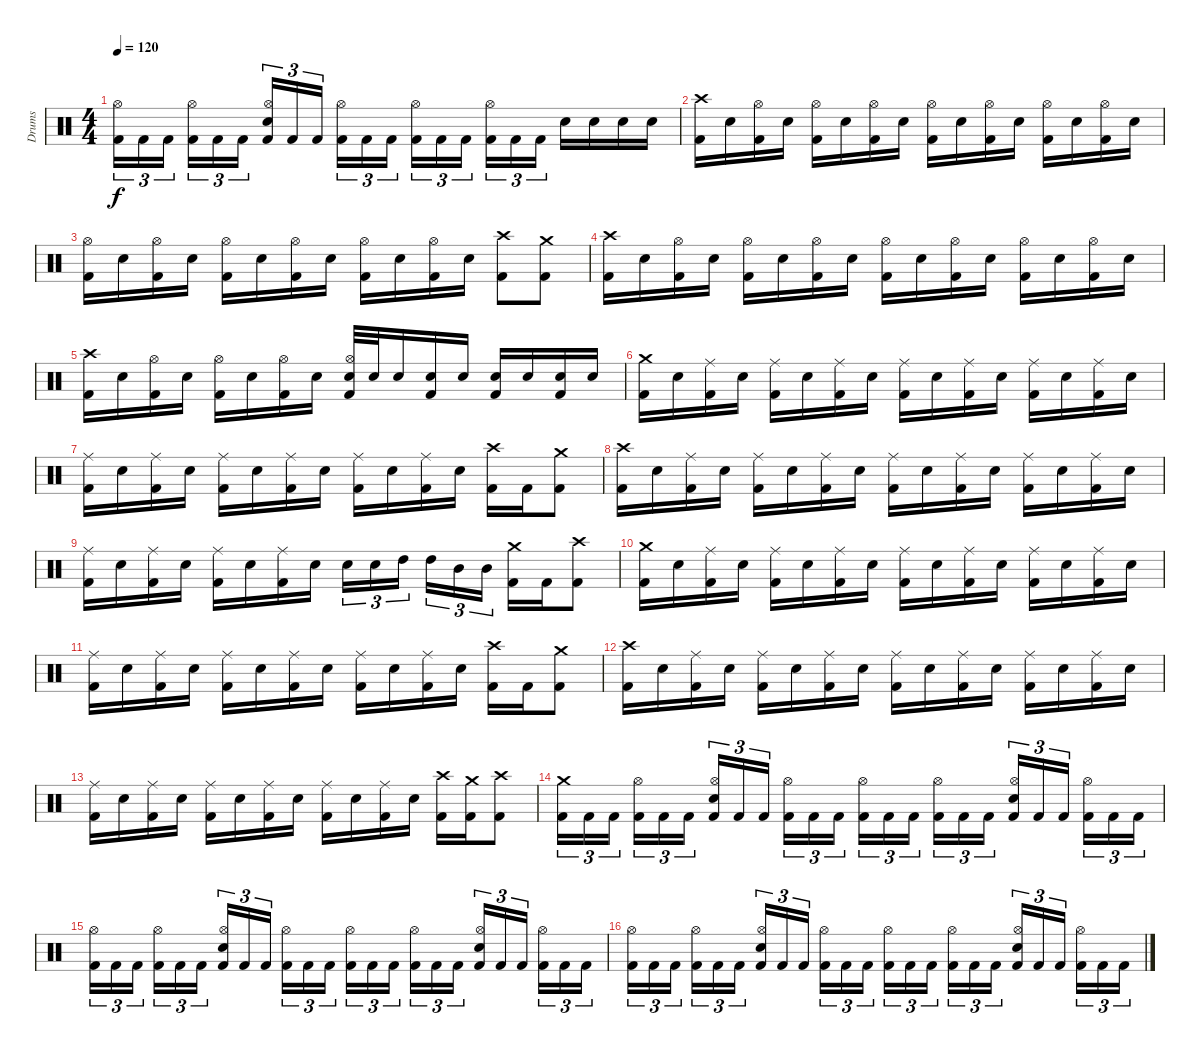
\track ("Drums" "Drums") {instrument percussion}
\staff {score}
\articulation defaults
\ts (4 4)
\tempo 120
\clef neutral
\ks c
("Kick (hit) 2" "Hi-Hat (open)").16{tu (3 2) dy f} "Kick (hit) 2".16{tu (3 2)} "Kick (hit) 2".16{tu (3 2)} ("Kick (hit) 2" "Hi-Hat (open)").16{tu (3 2)} "Kick (hit) 2".16{tu (3 2)} "Kick (hit) 2".16{tu (3 2)} ("Kick (hit) 2" "Electric Snare (hit)" "Hi-Hat (open)").16{tu (3 2)} "Kick (hit) 2".16{tu (3 2)} "Kick (hit) 2".16{tu (3 2)} ("Kick (hit) 2" "Hi-Hat (open)").16{tu (3 2)} "Kick (hit) 2".16{tu (3 2)} "Kick (hit) 2".16{tu (3 2)} ("Kick (hit) 2" "Hi-Hat (open)").16{tu (3 2)} "Kick (hit) 2".16{tu (3 2)} "Kick (hit) 2".16{tu (3 2)} ("Kick (hit) 2" "Hi-Hat (open)").16{tu (3 2)} "Kick (hit) 2".16{tu (3 2)} "Kick (hit) 2".16{tu (3 2)} "Electric Snare (hit)".16 "Electric Snare (hit)".16 "Electric Snare (hit)".16 "Electric Snare (hit)".16 |
("Kick (hit) 2" "Crash high (hit)").16 "Electric Snare (hit)".16 ("Kick (hit) 2" "Hi-Hat (open)").16 "Electric Snare (hit)".16 ("Kick (hit) 2" "Hi-Hat (open)").16 "Electric Snare (hit)".16 ("Kick (hit) 2" "Hi-Hat (open)").16 "Electric Snare (hit)".16 ("Kick (hit) 2" "Hi-Hat (open)").16 "Electric Snare (hit)".16 ("Kick (hit) 2" "Hi-Hat (open)").16 "Electric Snare (hit)".16 ("Kick (hit) 2" "Hi-Hat (open)").16 "Electric Snare (hit)".16 ("Kick (hit) 2" "Hi-Hat (open)").16 "Electric Snare (hit)".16 |
("Kick (hit) 2" "Hi-Hat (open)").16 "Electric Snare (hit)".16 ("Kick (hit) 2" "Hi-Hat (open)").16 "Electric Snare (hit)".16 ("Kick (hit) 2" "Hi-Hat (open)").16 "Electric Snare (hit)".16 ("Kick (hit) 2" "Hi-Hat (open)").16 "Electric Snare (hit)".16 ("Kick (hit) 2" "Hi-Hat (open)").16 "Electric Snare (hit)".16 ("Kick (hit) 2" "Hi-Hat (open)").16 "Electric Snare (hit)".16 ("Kick (hit) 2" "Crash high (hit)").8 ("Kick (hit) 2" "Crash medium (hit)").8 |
("Kick (hit) 2" "Crash high (hit)").16 "Electric Snare (hit)".16 ("Kick (hit) 2" "Hi-Hat (open)").16 "Electric Snare (hit)".16 ("Kick (hit) 2" "Hi-Hat (open)").16 "Electric Snare (hit)".16 ("Kick (hit) 2" "Hi-Hat (open)").16 "Electric Snare (hit)".16 ("Kick (hit) 2" "Hi-Hat (open)").16 "Electric Snare (hit)".16 ("Kick (hit) 2" "Hi-Hat (open)").16 "Electric Snare (hit)".16 ("Kick (hit) 2" "Hi-Hat (open)").16 "Electric Snare (hit)".16 ("Kick (hit) 2" "Hi-Hat (open)").16 "Electric Snare (hit)".16 |
("Kick (hit) 2" "Crash high (hit)").16 "Electric Snare (hit)".16 ("Kick (hit) 2" "Hi-Hat (open)").16 "Electric Snare (hit)".16 ("Kick (hit) 2" "Hi-Hat (open)").16 "Electric Snare (hit)".16 ("Kick (hit) 2" "Hi-Hat (open)").16 "Electric Snare (hit)".16 ("Kick (hit) 2" "Electric Snare (hit)" "Hi-Hat (open)").32 "Electric Snare (hit)".32 "Electric Snare (hit)".16 ("Kick (hit) 2" "Electric Snare (hit)").16 "Electric Snare (hit)".16 ("Kick (hit) 2" "Electric Snare (hit)").16 "Electric Snare (hit)".16 ("Kick (hit) 2" "Electric Snare (hit)").16 "Electric Snare (hit)".16 |
("Kick (hit) 2" "Crash medium (hit)").16 "Electric Snare (hit)".16 ("Kick (hit) 2" "Ride (middle)").16 "Electric Snare (hit)".16 ("Kick (hit) 2" "Ride (middle)").16 "Electric Snare (hit)".16 ("Kick (hit) 2" "Ride (middle)").16 "Electric Snare (hit)".16 ("Kick (hit) 2" "Ride (middle)").16 "Electric Snare (hit)".16 ("Kick (hit) 2" "Ride (middle)").16 "Electric Snare (hit)".16 ("Kick (hit) 2" "Ride (middle)").16 "Electric Snare (hit)".16 ("Kick (hit) 2" "Ride (middle)").16 "Electric Snare (hit)".16 |
("Kick (hit) 2" "Ride (middle)").16 "Electric Snare (hit)".16 ("Kick (hit) 2" "Ride (middle)").16 "Electric Snare (hit)".16 ("Kick (hit) 2" "Ride (middle)").16 "Electric Snare (hit)".16 ("Kick (hit) 2" "Ride (middle)").16 "Electric Snare (hit)".16 ("Kick (hit) 2" "Ride (middle)").16 "Electric Snare (hit)".16 ("Kick (hit) 2" "Ride (middle)").16 "Electric Snare (hit)".16 ("Kick (hit) 2" "Crash high (hit)").16 "Kick (hit) 2".16 ("Kick (hit) 2" "Crash medium (hit)").8 |
("Kick (hit) 2" "Crash high (hit)").16 "Electric Snare (hit)".16 ("Kick (hit) 2" "Ride (middle)").16 "Electric Snare (hit)".16 ("Kick (hit) 2" "Ride (middle)").16 "Electric Snare (hit)".16 ("Kick (hit) 2" "Ride (middle)").16 "Electric Snare (hit)".16 ("Kick (hit) 2" "Ride (middle)").16 "Electric Snare (hit)".16 ("Kick (hit) 2" "Ride (middle)").16 "Electric Snare (hit)".16 ("Kick (hit) 2" "Ride (middle)").16 "Electric Snare (hit)".16 ("Kick (hit) 2" "Ride (middle)").16 "Electric Snare (hit)".16 |
("Kick (hit) 2" "Ride (middle)").16 "Electric Snare (hit)".16 ("Kick (hit) 2" "Ride (middle)").16 "Electric Snare (hit)".16 ("Kick (hit) 2" "Ride (middle)").16 "Electric Snare (hit)".16 ("Kick (hit) 2" "Ride (middle)").16 "Electric Snare (hit)".16 "Electric Snare (hit)".16{tu (3 2)} "Electric Snare (hit)".16{tu (3 2)} "High Tom (hit)".16{tu (3 2)} "High Tom (hit)".16{tu (3 2)} "Mid Tom (hit)".16{tu (3 2)} "Mid Tom (hit)".16{tu (3 2)} ("Kick (hit) 2" "Crash medium (hit)").16 "Kick (hit) 2".16 ("Kick (hit) 2" "Crash high (hit)").8 |
("Kick (hit) 2" "Crash medium (hit)").16 "Electric Snare (hit)".16 ("Kick (hit) 2" "Ride (middle)").16 "Electric Snare (hit)".16 ("Kick (hit) 2" "Ride (middle)").16 "Electric Snare (hit)".16 ("Kick (hit) 2" "Ride (middle)").16 "Electric Snare (hit)".16 ("Kick (hit) 2" "Ride (middle)").16 "Electric Snare (hit)".16 ("Kick (hit) 2" "Ride (middle)").16 "Electric Snare (hit)".16 ("Kick (hit) 2" "Ride (middle)").16 "Electric Snare (hit)".16 ("Kick (hit) 2" "Ride (middle)").16 "Electric Snare (hit)".16 |
("Kick (hit) 2" "Ride (middle)").16 "Electric Snare (hit)".16 ("Kick (hit) 2" "Ride (middle)").16 "Electric Snare (hit)".16 ("Kick (hit) 2" "Ride (middle)").16 "Electric Snare (hit)".16 ("Kick (hit) 2" "Ride (middle)").16 "Electric Snare (hit)".16 ("Kick (hit) 2" "Ride (middle)").16 "Electric Snare (hit)".16 ("Kick (hit) 2" "Ride (middle)").16 "Electric Snare (hit)".16 ("Kick (hit) 2" "Crash high (hit)").16 "Kick (hit) 2".16 ("Kick (hit) 2" "Crash medium (hit)").8 |
("Kick (hit) 2" "Crash high (hit)").16 "Electric Snare (hit)".16 ("Kick (hit) 2" "Ride (middle)").16 "Electric Snare (hit)".16 ("Kick (hit) 2" "Ride (middle)").16 "Electric Snare (hit)".16 ("Kick (hit) 2" "Ride (middle)").16 "Electric Snare (hit)".16 ("Kick (hit) 2" "Ride (middle)").16 "Electric Snare (hit)".16 ("Kick (hit) 2" "Ride (middle)").16 "Electric Snare (hit)".16 ("Kick (hit) 2" "Ride (middle)").16 "Electric Snare (hit)".16 ("Kick (hit) 2" "Ride (middle)").16 "Electric Snare (hit)".16 |
("Kick (hit) 2" "Ride (middle)").16 "Electric Snare (hit)".16 ("Kick (hit) 2" "Ride (middle)").16 "Electric Snare (hit)".16 ("Kick (hit) 2" "Ride (middle)").16 "Electric Snare (hit)".16 ("Kick (hit) 2" "Ride (middle)").16 "Electric Snare (hit)".16 ("Kick (hit) 2" "Ride (middle)").16 "Electric Snare (hit)".16 ("Kick (hit) 2" "Ride (middle)").16 "Electric Snare (hit)".16 ("Kick (hit) 2" "Crash high (hit)").16 ("Kick (hit) 2" "Crash medium (hit)").16 ("Kick (hit) 2" "Crash high (hit)").8 |
("Kick (hit) 2" "Crash medium (hit)").16{tu (3 2)} "Kick (hit) 2".16{tu (3 2)} "Kick (hit) 2".16{tu (3 2)} ("Kick (hit) 2" "Hi-Hat (open)").16{tu (3 2)} "Kick (hit) 2".16{tu (3 2)} "Kick (hit) 2".16{tu (3 2)} ("Kick (hit) 2" "Electric Snare (hit)" "Hi-Hat (open)").16{tu (3 2)} "Kick (hit) 2".16{tu (3 2)} "Kick (hit) 2".16{tu (3 2)} ("Kick (hit) 2" "Hi-Hat (open)").16{tu (3 2)} "Kick (hit) 2".16{tu (3 2)} "Kick (hit) 2".16{tu (3 2)} ("Kick (hit) 2" "Hi-Hat (open)").16{tu (3 2)} "Kick (hit) 2".16{tu (3 2)} "Kick (hit) 2".16{tu (3 2)} ("Kick (hit) 2" "Hi-Hat (open)").16{tu (3 2)} "Kick (hit) 2".16{tu (3 2)} "Kick (hit) 2".16{tu (3 2)} ("Kick (hit) 2" "Electric Snare (hit)" "Hi-Hat (open)").16{tu (3 2)} "Kick (hit) 2".16{tu (3 2)} "Kick (hit) 2".16{tu (3 2)} ("Kick (hit) 2" "Hi-Hat (open)").16{tu (3 2)} "Kick (hit) 2".16{tu (3 2)} "Kick (hit) 2".16{tu (3 2)} |
("Kick (hit) 2" "Hi-Hat (open)").16{tu (3 2)} "Kick (hit) 2".16{tu (3 2)} "Kick (hit) 2".16{tu (3 2)} ("Kick (hit) 2" "Hi-Hat (open)").16{tu (3 2)} "Kick (hit) 2".16{tu (3 2)} "Kick (hit) 2".16{tu (3 2)} ("Kick (hit) 2" "Electric Snare (hit)" "Hi-Hat (open)").16{tu (3 2)} "Kick (hit) 2".16{tu (3 2)} "Kick (hit) 2".16{tu (3 2)} ("Kick (hit) 2" "Hi-Hat (open)").16{tu (3 2)} "Kick (hit) 2".16{tu (3 2)} "Kick (hit) 2".16{tu (3 2)} ("Kick (hit) 2" "Hi-Hat (open)").16{tu (3 2)} "Kick (hit) 2".16{tu (3 2)} "Kick (hit) 2".16{tu (3 2)} ("Kick (hit) 2" "Hi-Hat (open)").16{tu (3 2)} "Kick (hit) 2".16{tu (3 2)} "Kick (hit) 2".16{tu (3 2)} ("Kick (hit) 2" "Electric Snare (hit)" "Hi-Hat (open)").16{tu (3 2)} "Kick (hit) 2".16{tu (3 2)} "Kick (hit) 2".16{tu (3 2)} ("Kick (hit) 2" "Hi-Hat (open)").16{tu (3 2)} "Kick (hit) 2".16{tu (3 2)} "Kick (hit) 2".16{tu (3 2)} |
("Kick (hit) 2" "Hi-Hat (open)").16{tu (3 2)} "Kick (hit) 2".16{tu (3 2)} "Kick (hit) 2".16{tu (3 2)} ("Kick (hit) 2" "Hi-Hat (open)").16{tu (3 2)} "Kick (hit) 2".16{tu (3 2)} "Kick (hit) 2".16{tu (3 2)} ("Kick (hit) 2" "Electric Snare (hit)" "Hi-Hat (open)").16{tu (3 2)} "Kick (hit) 2".16{tu (3 2)} "Kick (hit) 2".16{tu (3 2)} ("Kick (hit) 2" "Hi-Hat (open)").16{tu (3 2)} "Kick (hit) 2".16{tu (3 2)} "Kick (hit) 2".16{tu (3 2)} ("Kick (hit) 2" "Hi-Hat (open)").16{tu (3 2)} "Kick (hit) 2".16{tu (3 2)} "Kick (hit) 2".16{tu (3 2)} ("Kick (hit) 2" "Hi-Hat (open)").16{tu (3 2)} "Kick (hit) 2".16{tu (3 2)} "Kick (hit) 2".16{tu (3 2)} ("Kick (hit) 2" "Electric Snare (hit)" "Hi-Hat (open)").16{tu (3 2)} "Kick (hit) 2".16{tu (3 2)} "Kick (hit) 2".16{tu (3 2)} ("Kick (hit) 2" "Hi-Hat (open)").16{tu (3 2)} "Kick (hit) 2".16{tu (3 2)} "Kick (hit) 2".16{tu (3 2)}
